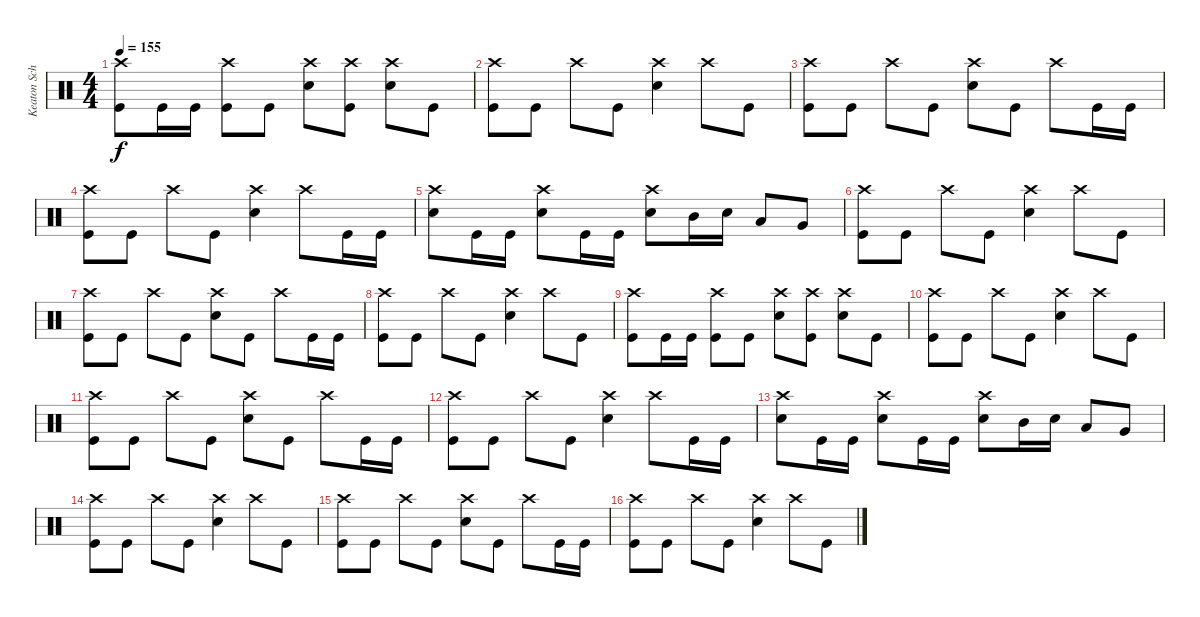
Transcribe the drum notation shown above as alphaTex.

\track ("Keaton Schluchter Drums" "Keaton Sch") {instrument percussion bank 20}
\staff {score}
\articulation defaults
\ts (4 4)
\tempo 155
\clef neutral
\ks c
("Crash high (hit)" "Kick (hit)").8{dy f} "Kick (hit)".16 "Kick (hit)".16 ("Crash high (hit)" "Kick (hit)").8 "Kick (hit)".8 ("Crash high (hit)" "Electric Snare (hit)").8 ("Crash high (hit)" "Kick (hit)").8 ("Crash high (hit)" "Electric Snare (hit)").8 "Kick (hit)".8 |
("Crash high (hit)" "Kick (hit)").8 "Kick (hit)".8 "Crash high (hit)".8 "Kick (hit)".8 ("Crash high (hit)" "Electric Snare (hit)").4 "Crash high (hit)".8 "Kick (hit)".8 |
("Crash high (hit)" "Kick (hit)").8 "Kick (hit)".8 "Crash high (hit)".8 "Kick (hit)".8 ("Crash high (hit)" "Electric Snare (hit)").8 "Kick (hit)".8 "Crash high (hit)".8 "Kick (hit)".16 "Kick (hit)".16 |
("Crash high (hit)" "Kick (hit)").8 "Kick (hit)".8 "Crash high (hit)".8 "Kick (hit)".8 ("Crash high (hit)" "Electric Snare (hit)").4 "Crash high (hit)".8 "Kick (hit)".16 "Kick (hit)".16 |
("Crash high (hit)" "Electric Snare (hit)").8 "Kick (hit)".16 "Kick (hit)".16 ("Crash high (hit)" "Electric Snare (hit)").8 "Kick (hit)".16 "Kick (hit)".16 ("Crash high (hit)" "Electric Snare (hit)").8 "Mid Tom (hit)".16 "Electric Snare (hit)".16 "Low Tom (hit)".8 "Very Low Tom (hit)".8 |
("Crash high (hit)" "Kick (hit)").8 "Kick (hit)".8 "Crash high (hit)".8 "Kick (hit)".8 ("Crash high (hit)" "Electric Snare (hit)").4 "Crash high (hit)".8 "Kick (hit)".8 |
("Crash high (hit)" "Kick (hit)").8 "Kick (hit)".8 "Crash high (hit)".8 "Kick (hit)".8 ("Crash high (hit)" "Electric Snare (hit)").8 "Kick (hit)".8 "Crash high (hit)".8 "Kick (hit)".16 "Kick (hit)".16 |
("Crash high (hit)" "Kick (hit)").8 "Kick (hit)".8 "Crash high (hit)".8 "Kick (hit)".8 ("Crash high (hit)" "Electric Snare (hit)").4 "Crash high (hit)".8 "Kick (hit)".8 |
("Crash high (hit)" "Kick (hit)").8 "Kick (hit)".16 "Kick (hit)".16 ("Crash high (hit)" "Kick (hit)").8 "Kick (hit)".8 ("Crash high (hit)" "Electric Snare (hit)").8 ("Crash high (hit)" "Kick (hit)").8 ("Crash high (hit)" "Electric Snare (hit)").8 "Kick (hit)".8 |
("Crash high (hit)" "Kick (hit)").8 "Kick (hit)".8 "Crash high (hit)".8 "Kick (hit)".8 ("Crash high (hit)" "Electric Snare (hit)").4 "Crash high (hit)".8 "Kick (hit)".8 |
("Crash high (hit)" "Kick (hit)").8 "Kick (hit)".8 "Crash high (hit)".8 "Kick (hit)".8 ("Crash high (hit)" "Electric Snare (hit)").8 "Kick (hit)".8 "Crash high (hit)".8 "Kick (hit)".16 "Kick (hit)".16 |
("Crash high (hit)" "Kick (hit)").8 "Kick (hit)".8 "Crash high (hit)".8 "Kick (hit)".8 ("Crash high (hit)" "Electric Snare (hit)").4 "Crash high (hit)".8 "Kick (hit)".16 "Kick (hit)".16 |
("Crash high (hit)" "Electric Snare (hit)").8 "Kick (hit)".16 "Kick (hit)".16 ("Crash high (hit)" "Electric Snare (hit)").8 "Kick (hit)".16 "Kick (hit)".16 ("Crash high (hit)" "Electric Snare (hit)").8 "Mid Tom (hit)".16 "Electric Snare (hit)".16 "Low Tom (hit)".8 "Very Low Tom (hit)".8 |
("Crash high (hit)" "Kick (hit)").8 "Kick (hit)".8 "Crash high (hit)".8 "Kick (hit)".8 ("Crash high (hit)" "Electric Snare (hit)").4 "Crash high (hit)".8 "Kick (hit)".8 |
("Crash high (hit)" "Kick (hit)").8 "Kick (hit)".8 "Crash high (hit)".8 "Kick (hit)".8 ("Crash high (hit)" "Electric Snare (hit)").8 "Kick (hit)".8 "Crash high (hit)".8 "Kick (hit)".16 "Kick (hit)".16 |
("Crash high (hit)" "Kick (hit)").8 "Kick (hit)".8 "Crash high (hit)".8 "Kick (hit)".8 ("Crash high (hit)" "Electric Snare (hit)").4 "Crash high (hit)".8 "Kick (hit)".8
